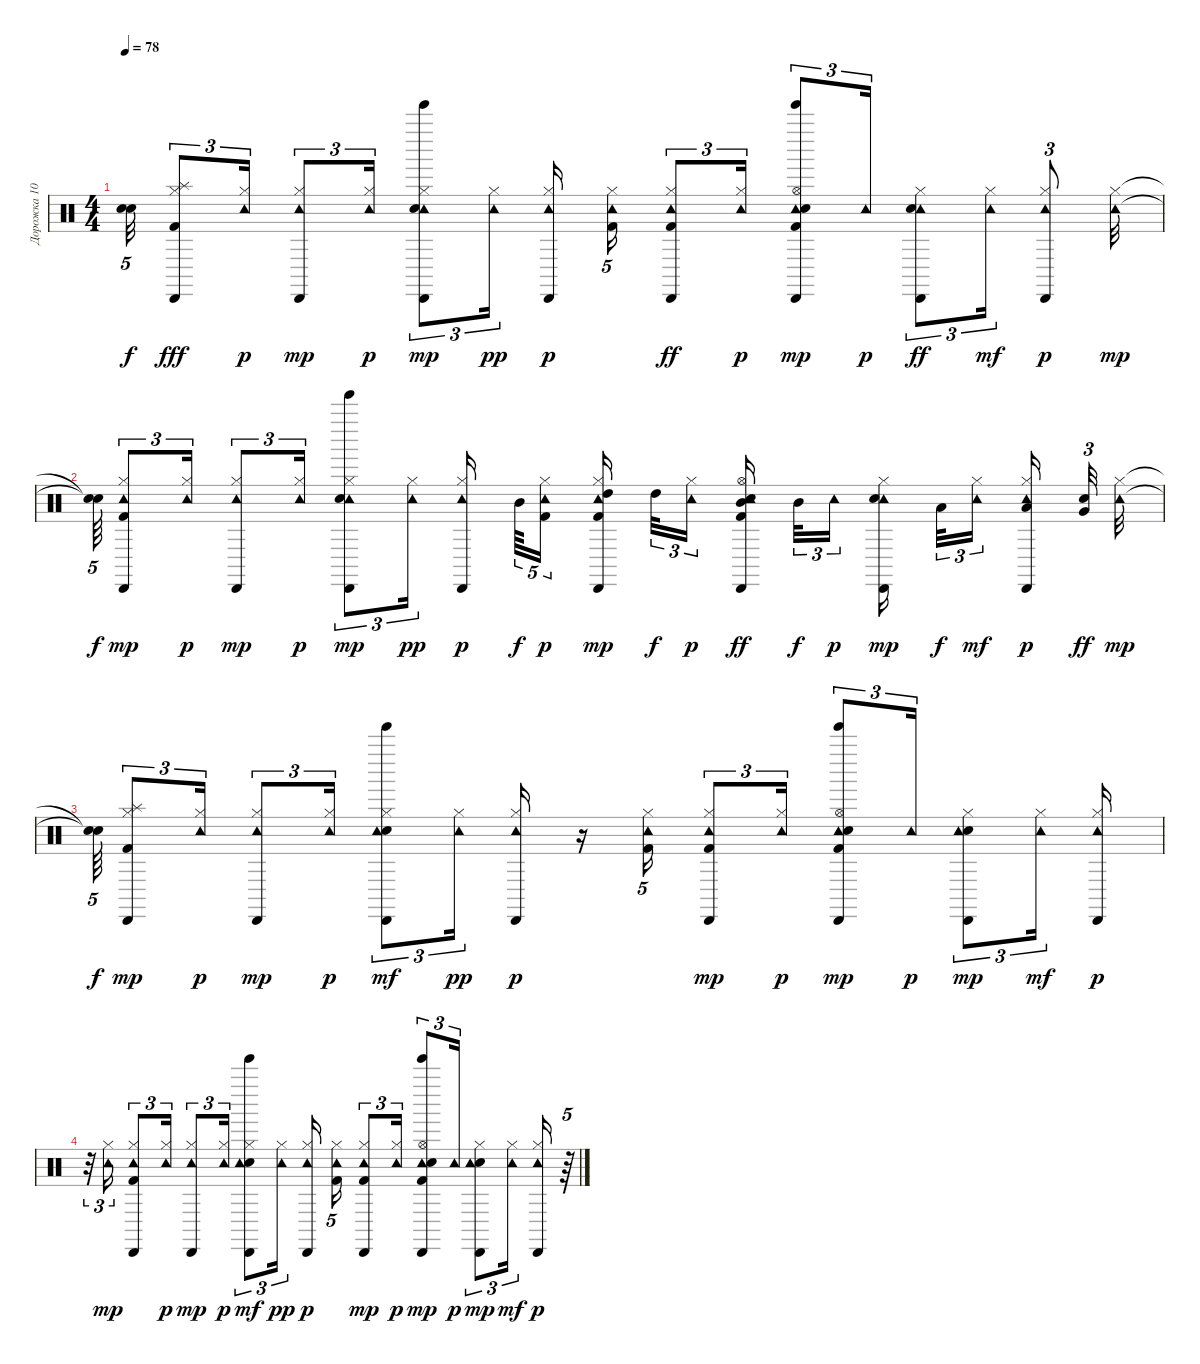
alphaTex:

\track ("Дорожка 10" "Дорожка 10") {instrument percussion}
\staff
\articulation defaults
\ts (4 4)
\tempo 78
\clef neutral
\ks c
("Snare (hit)"{t} "Snare (hit)"{t}).32{tu (5 4) dy f} ("Cabasa (hit)" "Hi-Hat (closed)" "Kick (hit) 2" "Splash (hit)").8{tu (3 2) dy fff} ("Tambourine (hit)" "Hi-Hat (closed)").16{tu (3 2) dy p} ("Cabasa (hit)" "Tambourine (hit)" "Hi-Hat (closed)").8{tu (3 2) dy mp} ("Tambourine (hit)" "Hi-Hat (closed)").16{tu (3 2) dy p} ("Cabasa (hit)" "Tambourine (hit)" "Hi-Hat (closed)" "Snare (hit) 2" "Tinkle Bell (hit)").8{tu (3 2) dy mp} ("Tambourine (hit)" "Hi-Hat (closed)").16{tu (3 2) dy pp beam splitsecondary} ("Cabasa (hit)" "Tambourine (hit)" "Hi-Hat (closed)").16{dy p} ("Tambourine (hit)" "Hi-Hat (closed)" "Kick (hit) 2").16{tu (5 4)} ("Cabasa (hit)" "Tambourine (hit)" "Hi-Hat (closed)" "Kick (hit) 2").8{tu (3 2) dy ff} ("Tambourine (hit)" "Hi-Hat (closed)").16{tu (3 2) dy p} ("Cabasa (hit)" "Tambourine (hit)" "Electric Snare (hit)" "Kick (hit) 2" "Hi-Hat (open)" "Tinkle Bell (hit)").8{tu (3 2) dy mp} "Tambourine (hit)".16{tu (3 2) dy p} ("Cabasa (hit)" "Tambourine (hit)" "Hi-Hat (closed)" "Snare (hit) 2").8{tu (3 2) dy ff} ("Tambourine (hit)" "Hi-Hat (closed)").16{tu (3 2) dy mf} ("Cabasa (hit)" "Tambourine (hit)" "Hi-Hat (closed)").8{tu (3 2) dy p} ("Tambourine (hit)" "Hi-Hat (closed)").32{dy mp} |
("Snare (hit)"{t} "Snare (hit)"{t}).64{tu (5 4) dy f} ("Cabasa (hit)" "Tambourine (hit)" "Kick (hit) 2" "Hi-Hat (closed)").8{tu (3 2) dy mp} ("Tambourine (hit)" "Hi-Hat (closed)").16{tu (3 2) dy p} ("Cabasa (hit)" "Tambourine (hit)" "Hi-Hat (closed)").8{tu (3 2) dy mp} ("Tambourine (hit)" "Hi-Hat (closed)").16{tu (3 2) dy p} ("Cabasa (hit)" "Tambourine (hit)" "Snare (hit) 2" "Hi-Hat (closed)" "Tinkle Bell (hit)").8{tu (3 2) dy mp} ("Tambourine (hit)" "Hi-Hat (closed)").16{tu (3 2) dy pp beam splitsecondary} ("Cabasa (hit)" "Tambourine (hit)" "Hi-Hat (closed)").16{dy p beam splitsecondary} "Mid Tom (hit)".64{tu (5 4) dy f} ("Tambourine (hit)" "Kick (hit) 2" "Hi-Hat (closed)").16{tu (5 4) dy p} ("High Tom (hit)" "Cabasa (hit)" "Tambourine (hit)" "Kick (hit) 2" "Hi-Hat (closed)").16{dy mp beam splitsecondary} "High Tom (hit)".32{tu (3 2) dy f} ("Tambourine (hit)" "Hi-Hat (closed)").16{tu (3 2) dy p beam splitsecondary} ("Mid Tom (hit)" "Cabasa (hit)" "Tambourine (hit)" "Electric Snare (hit)" "Kick (hit) 2" "Hi-Hat (open)").16{dy ff beam splitsecondary} "Mid Tom (hit)".32{tu (3 2) dy f} "Tambourine (hit)".16{tu (3 2) dy p} ("Cabasa (hit)" "Tambourine (hit)" "Snare (hit) 2" "Hi-Hat (closed)").16{dy mp beam splitsecondary} "Low Tom (hit)".32{tu (3 2) dy f} ("Tambourine (hit)" "Hi-Hat (closed)").16{tu (3 2) dy mf beam splitsecondary} ("Low Tom (hit)" "Cabasa (hit)" "Tambourine (hit)" "Hi-Hat (closed)").16{dy p beam splitsecondary} ("Electric Snare (hit)" "Very Low Tom (hit)").32{tu (3 2) dy ff} ("Tambourine (hit)" "Hi-Hat (closed)").32{dy mp} |
("Snare (hit)"{t} "Snare (hit)"{t}).64{tu (5 4) dy f} ("Kick (hit) 2" "Splash (hit)" "Hi-Hat (closed)" "Cabasa (hit)").8{tu (3 2) dy mp} ("Hi-Hat (closed)" "Tambourine (hit)").16{tu (3 2) dy p} ("Hi-Hat (closed)" "Cabasa (hit)" "Tambourine (hit)").8{tu (3 2) dy mp} ("Hi-Hat (closed)" "Tambourine (hit)").16{tu (3 2) dy p} ("Snare (hit) 2" "Hi-Hat (closed)" "Tinkle Bell (hit)" "Cabasa (hit)" "Tambourine (hit)").8{tu (3 2) dy mf} ("Hi-Hat (closed)" "Tambourine (hit)").16{tu (3 2) dy pp} ("Hi-Hat (closed)" "Cabasa (hit)" "Tambourine (hit)").16{dy p} r.16 ("Kick (hit) 2" "Hi-Hat (closed)" "Tambourine (hit)").16{tu (5 4)} ("Kick (hit) 2" "Hi-Hat (closed)" "Cabasa (hit)" "Tambourine (hit)").8{tu (3 2) dy mp} ("Hi-Hat (closed)" "Tambourine (hit)").16{tu (3 2) dy p} ("Kick (hit) 2" "Hi-Hat (open)" "Cabasa (hit)" "Tambourine (hit)" "Electric Snare (hit)" "Tinkle Bell (hit)").8{tu (3 2) dy mp} "Tambourine (hit)".16{tu (3 2) dy p} ("Snare (hit) 2" "Hi-Hat (closed)" "Cabasa (hit)" "Tambourine (hit)").8{tu (3 2) dy mp} ("Hi-Hat (closed)" "Tambourine (hit)").16{tu (3 2) dy mf} ("Hi-Hat (closed)" "Cabasa (hit)" "Tambourine (hit)").16{dy p} |
r.32{tu (3 2)} ("Hi-Hat (closed)" "Tambourine (hit)").16{tu (3 2) dy mp} ("Hi-Hat (closed)" "Kick (hit) 2" "Cabasa (hit)" "Tambourine (hit)").8{tu (3 2)} ("Hi-Hat (closed)" "Tambourine (hit)").16{tu (3 2) dy p} ("Hi-Hat (closed)" "Cabasa (hit)" "Tambourine (hit)").8{tu (3 2) dy mp} ("Hi-Hat (closed)" "Tambourine (hit)").16{tu (3 2) dy p} ("Hi-Hat (closed)" "Snare (hit) 2" "Tinkle Bell (hit)" "Cabasa (hit)" "Tambourine (hit)").8{tu (3 2) dy mf} ("Hi-Hat (closed)" "Tambourine (hit)").16{tu (3 2) dy pp} ("Hi-Hat (closed)" "Cabasa (hit)" "Tambourine (hit)").16{dy p} ("Hi-Hat (closed)" "Kick (hit) 2" "Tambourine (hit)").16{tu (5 4)} ("Hi-Hat (closed)" "Kick (hit) 2" "Cabasa (hit)" "Tambourine (hit)").8{tu (3 2) dy mp} ("Hi-Hat (closed)" "Tambourine (hit)").16{tu (3 2) dy p} ("Kick (hit) 2" "Hi-Hat (open)" "Cabasa (hit)" "Tambourine (hit)" "Electric Snare (hit)" "Tinkle Bell (hit)").8{tu (3 2) dy mp} "Tambourine (hit)".16{tu (3 2) dy p} ("Hi-Hat (closed)" "Snare (hit) 2" "Cabasa (hit)" "Tambourine (hit)").8{tu (3 2) dy mp} ("Hi-Hat (closed)" "Tambourine (hit)").16{tu (3 2) dy mf} ("Hi-Hat (closed)" "Cabasa (hit)" "Tambourine (hit)").16{dy p} r.64{tu (5 4)}
